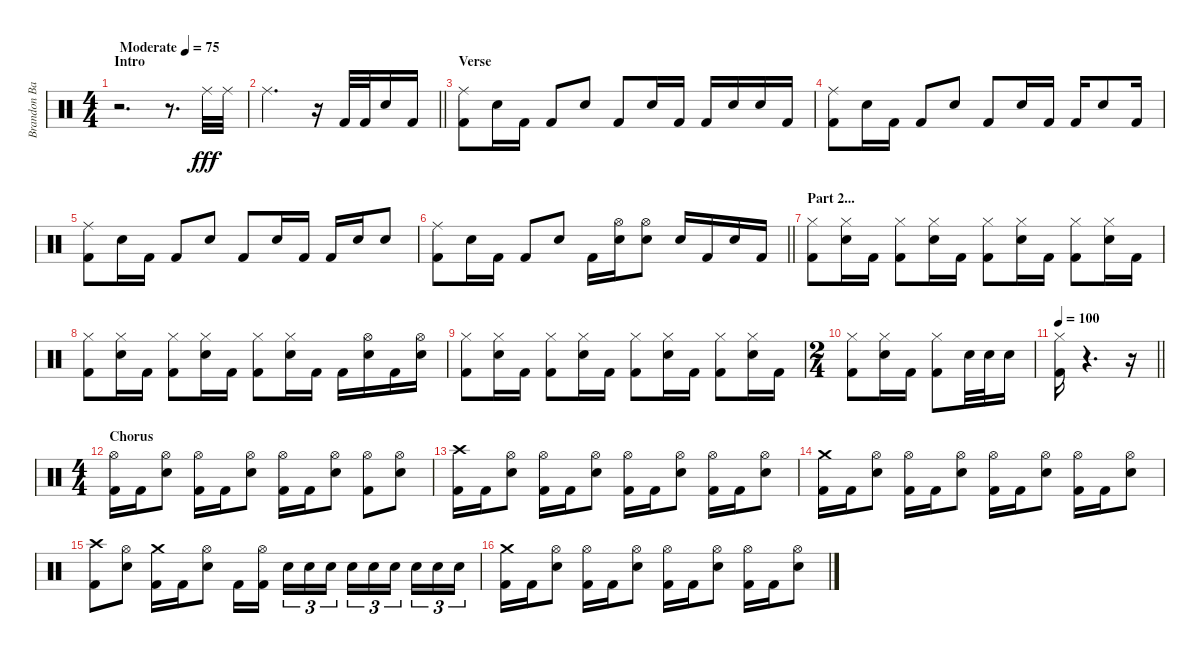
\track ("Brandon Barnes" "Brandon Ba") {instrument percussion}
\staff {score}
\articulation defaults
\ts (4 4)
\section ("" "Intro")
\tempo (75 "Moderate")
\clef neutral
\ks c
r.2{d dy fff} r.8{d} "Ride (middle)".32 "Ride (middle)".32 |
\barLineRight lightlight "Ride (middle)".2{d}
r.16 "Kick (hit) 2".32 "Kick (hit) 2".32 "Snare (hit) 2".16 "Kick (hit) 2".16 |
\section ("" "Verse")
("Ride (middle)" "Kick (hit) 2").8 "Snare (hit) 2".16 "Kick (hit) 2".16 "Kick (hit) 2".8 "Snare (hit) 2".8 "Kick (hit) 2".8 "Snare (hit) 2".16 "Kick (hit) 2".16 "Kick (hit) 2".16 "Snare (hit) 2".16 "Snare (hit) 2".16 "Kick (hit) 2".16 |
("Ride (middle)" "Kick (hit) 2").8 "Snare (hit) 2".16 "Kick (hit) 2".16 "Kick (hit) 2".8 "Snare (hit) 2".8 "Kick (hit) 2".8 "Snare (hit) 2".16 "Kick (hit) 2".16 "Kick (hit) 2".16 "Snare (hit) 2".8 "Kick (hit) 2".16 |
("Ride (middle)" "Kick (hit) 2").8 "Snare (hit) 2".16 "Kick (hit) 2".16 "Kick (hit) 2".8 "Snare (hit) 2".8 "Kick (hit) 2".8 "Snare (hit) 2".16 "Kick (hit) 2".16 "Kick (hit) 2".16 "Snare (hit) 2".16 "Snare (hit) 2".8 |
\barLineRight lightlight
("Ride (middle)" "Kick (hit) 2").8 "Snare (hit) 2".16 "Kick (hit) 2".16 "Kick (hit) 2".8 "Snare (hit) 2".8 "Kick (hit) 2".16 ("Hi-Hat (open)" "Snare (hit) 2").16 ("Hi-Hat (open)" "Snare (hit) 2").8 "Snare (hit) 2".16 "Kick (hit) 2".16 "Snare (hit) 2".16 "Kick (hit) 2".16 |
\section ("" "Part 2...")
("Hi-Hat (closed)" "Kick (hit) 2").8 ("Hi-Hat (closed)" "Snare (hit) 2").16 "Kick (hit) 2".16 ("Hi-Hat (closed)" "Kick (hit) 2").8 ("Hi-Hat (closed)" "Snare (hit) 2").16 "Kick (hit) 2".16 ("Hi-Hat (closed)" "Kick (hit) 2").8 ("Hi-Hat (closed)" "Snare (hit) 2").16 "Kick (hit) 2".16 ("Hi-Hat (closed)" "Kick (hit) 2").8 ("Hi-Hat (closed)" "Snare (hit) 2").16 "Kick (hit) 2".16 |
("Hi-Hat (closed)" "Kick (hit) 2").8 ("Hi-Hat (closed)" "Snare (hit) 2").16 "Kick (hit) 2".16 ("Hi-Hat (closed)" "Kick (hit) 2").8 ("Hi-Hat (closed)" "Snare (hit) 2").16 "Kick (hit) 2".16 ("Hi-Hat (closed)" "Kick (hit) 2").8 ("Hi-Hat (closed)" "Snare (hit) 2").16 "Kick (hit) 2".16 "Kick (hit) 2".16 ("Hi-Hat (open)" "Snare (hit) 2").16 "Kick (hit) 2".16 ("Hi-Hat (open)" "Snare (hit) 2").16 |
("Hi-Hat (closed)" "Kick (hit) 2").8 ("Hi-Hat (closed)" "Snare (hit) 2").16 "Kick (hit) 2".16 ("Hi-Hat (closed)" "Kick (hit) 2").8 ("Hi-Hat (closed)" "Snare (hit) 2").16 "Kick (hit) 2".16 ("Hi-Hat (closed)" "Kick (hit) 2").8 ("Hi-Hat (closed)" "Snare (hit) 2").16 "Kick (hit) 2".16 ("Hi-Hat (closed)" "Kick (hit) 2").8 ("Hi-Hat (closed)" "Snare (hit) 2").16 "Kick (hit) 2".16 |
\ts (2 4)
("Hi-Hat (closed)" "Kick (hit) 2").8 ("Hi-Hat (closed)" "Snare (hit) 2").16 "Kick (hit) 2".16 ("Hi-Hat (closed)" "Kick (hit) 2").8 "Snare (hit) 2".32 "Snare (hit) 2".32 "Snare (hit) 2".16 |
\tempo 100
\barLineRight lightlight
("Hi-Hat (closed)" "Kick (hit) 2").16 r.4{d} r.16 |
\ts (4 4)
\section ("" "Chorus")
("Hi-Hat (open)" "Kick (hit) 2").16 "Kick (hit) 2".16 ("Hi-Hat (open)" "Snare (hit) 2").8 ("Hi-Hat (open)" "Kick (hit) 2").16 "Kick (hit) 2".16 ("Hi-Hat (open)" "Snare (hit) 2").8 ("Hi-Hat (open)" "Kick (hit) 2").16 "Kick (hit) 2".16 ("Hi-Hat (open)" "Snare (hit) 2").8 ("Hi-Hat (open)" "Kick (hit) 2").8 ("Hi-Hat (open)" "Snare (hit) 2").8 |
("Crash high (hit)" "Kick (hit) 2").16 "Kick (hit) 2".16 ("Hi-Hat (open)" "Snare (hit) 2").8 ("Hi-Hat (open)" "Kick (hit) 2").16 "Kick (hit) 2".16 ("Hi-Hat (open)" "Snare (hit) 2").8 ("Hi-Hat (open)" "Kick (hit) 2").16 "Kick (hit) 2".16 ("Hi-Hat (open)" "Snare (hit) 2").8 ("Hi-Hat (open)" "Kick (hit) 2").16 "Kick (hit) 2".16 ("Hi-Hat (open)" "Snare (hit) 2").8 |
("Crash medium (hit)" "Kick (hit) 2").16 "Kick (hit) 2".16 ("Hi-Hat (open)" "Snare (hit) 2").8 ("Hi-Hat (open)" "Kick (hit) 2").16 "Kick (hit) 2".16 ("Hi-Hat (open)" "Snare (hit) 2").8 ("Hi-Hat (open)" "Kick (hit) 2").16 "Kick (hit) 2".16 ("Hi-Hat (open)" "Snare (hit) 2").8 ("Hi-Hat (open)" "Kick (hit) 2").16 "Kick (hit) 2".16 ("Hi-Hat (open)" "Snare (hit) 2").8 |
("Crash high (hit)" "Kick (hit) 2").8 ("Hi-Hat (open)" "Snare (hit) 2").8 ("Crash medium (hit)" "Kick (hit) 2").16 "Kick (hit) 2".16 ("Hi-Hat (open)" "Snare (hit) 2").8 "Kick (hit) 2".16 ("Hi-Hat (open)" "Kick (hit) 2").16{beam splitsecondary} "Snare (hit) 2".16{tu (3 2)} "Snare (hit) 2".16{tu (3 2)} "Snare (hit) 2".16{tu (3 2)} "Snare (hit) 2".16{tu (3 2)} "Snare (hit) 2".16{tu (3 2)} "Snare (hit) 2".16{tu (3 2) beam splitsecondary} "Snare (hit) 2".16{tu (3 2)} "Snare (hit) 2".16{tu (3 2)} "Snare (hit) 2".16{tu (3 2)} |
("Crash medium (hit)" "Kick (hit) 2").16 "Kick (hit) 2".16 ("Hi-Hat (open)" "Snare (hit) 2").8 ("Hi-Hat (open)" "Kick (hit) 2").16 "Kick (hit) 2".16 ("Hi-Hat (open)" "Snare (hit) 2").8 ("Hi-Hat (open)" "Kick (hit) 2").16 "Kick (hit) 2".16 ("Hi-Hat (open)" "Snare (hit) 2").8 ("Hi-Hat (open)" "Kick (hit) 2").16 "Kick (hit) 2".16 ("Hi-Hat (open)" "Snare (hit) 2").8
